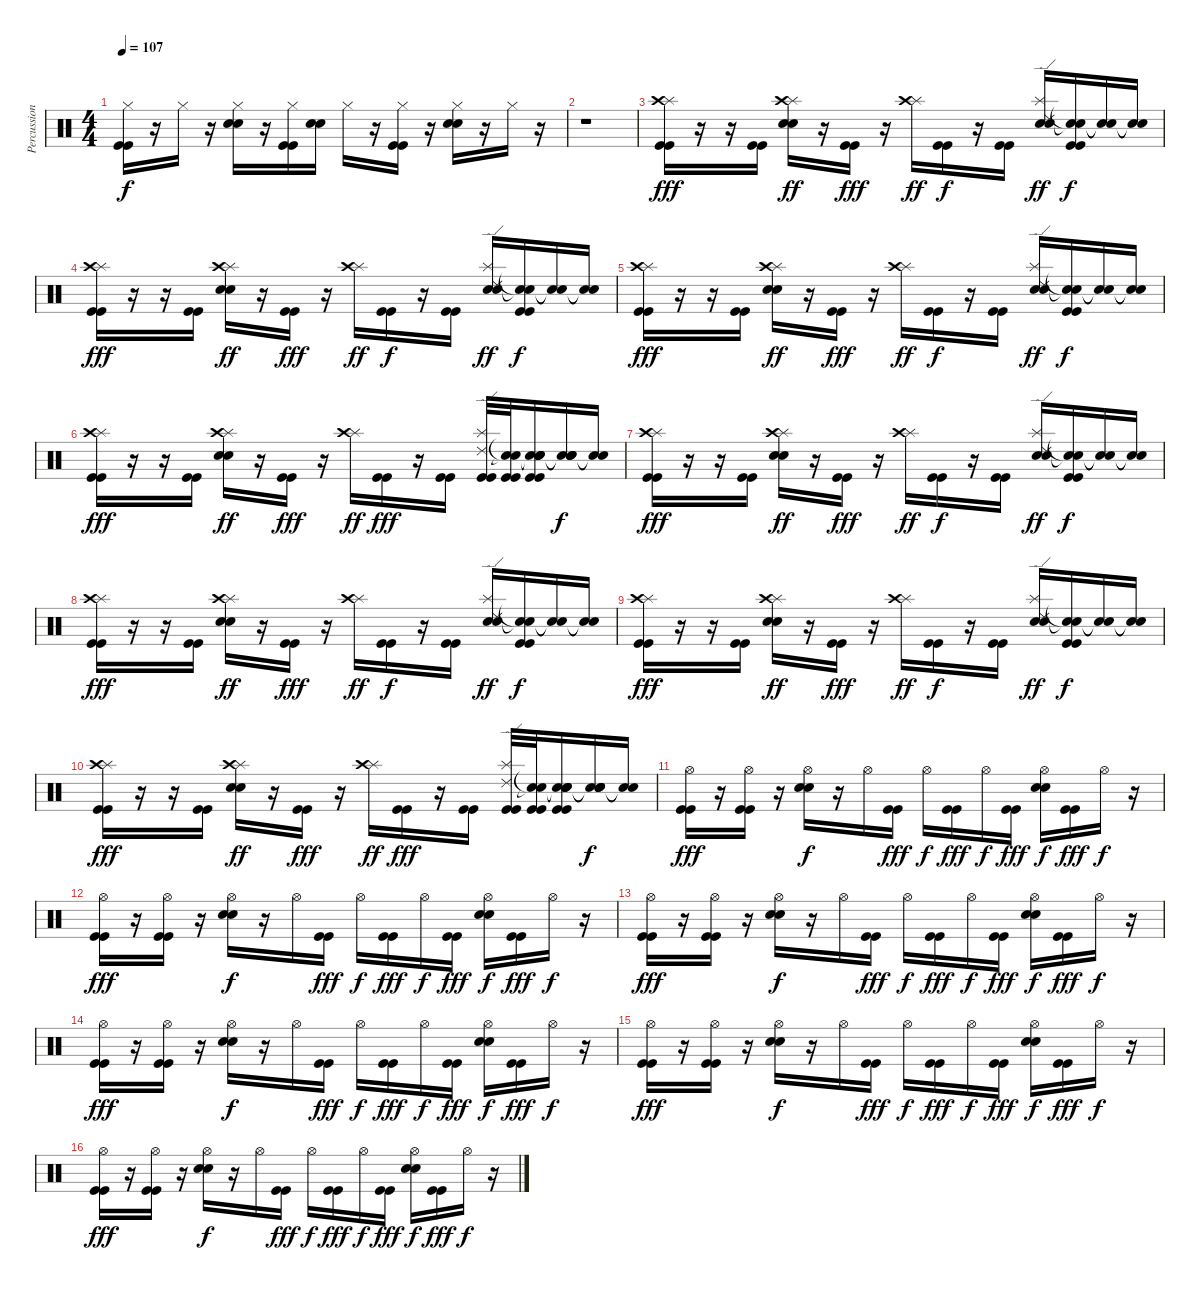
\track ("Percussions" "Percussion") {instrument percussion}
\staff {score}
\articulation defaults
\ts (4 4)
\tempo 107
\clef neutral
\ks c
("Hi-Hat (closed)" "Kick (hit)" "Kick (hit)").16{dy f} r.16 "Hi-Hat (closed)".16 r.16 ("Hi-Hat (closed)" "Electric Snare (hit)" "Electric Snare (hit)").16 r.16 ("Hi-Hat (closed)" "Kick (hit)" "Kick (hit)").16 ("Electric Snare (hit)" "Electric Snare (hit)").16 "Hi-Hat (closed)".16 r.16 ("Hi-Hat (closed)" "Kick (hit)" "Kick (hit)").16 r.16 ("Hi-Hat (closed)" "Electric Snare (hit)" "Electric Snare (hit)").16 r.16 "Hi-Hat (closed)".16 r.16 |
r.1 |
("Splash (hit)" "Crash high (hit)" "Kick (hit)" "Kick (hit)").16{dy fff} r.16 r.16 ("Kick (hit)" "Kick (hit)").16 ("Splash (hit)" "Crash high (hit)" "Electric Snare (hit)" "Electric Snare (hit)").16{dy ff} r.16 ("Kick (hit)" "Kick (hit)").16{dy fff} r.16 ("Splash (hit)" "Crash high (hit)").16{dy ff} ("Kick (hit)" "Kick (hit)").16{dy f} r.16 ("Kick (hit)" "Kick (hit)").16 ("Splash (hit)" "Ride (edge) 2" "Electric Snare (hit)" "Electric Snare (hit)").16{dy ff} ("Snare (hit)"{t} "Snare (hit)"{t} "Kick (hit)" "Kick (hit)").16{dy f} ("Snare (hit)"{t} "Snare (hit)"{t}).16 ("Snare (hit)"{t} "Snare (hit)"{t}).16 |
("Splash (hit)" "Crash high (hit)" "Kick (hit)" "Kick (hit)").16{dy fff} r.16 r.16 ("Kick (hit)" "Kick (hit)").16 ("Splash (hit)" "Crash high (hit)" "Electric Snare (hit)" "Electric Snare (hit)").16{dy ff} r.16 ("Kick (hit)" "Kick (hit)").16{dy fff} r.16 ("Splash (hit)" "Crash high (hit)").16{dy ff} ("Kick (hit)" "Kick (hit)").16{dy f} r.16 ("Kick (hit)" "Kick (hit)").16 ("Splash (hit)" "Ride (edge) 2" "Electric Snare (hit)" "Electric Snare (hit)").16{dy ff} ("Snare (hit)"{t} "Snare (hit)"{t} "Kick (hit)" "Kick (hit)").16{dy f} ("Snare (hit)"{t} "Snare (hit)"{t}).16 ("Snare (hit)"{t} "Snare (hit)"{t}).16 |
("Splash (hit)" "Crash high (hit)" "Kick (hit)" "Kick (hit)").16{dy fff} r.16 r.16 ("Kick (hit)" "Kick (hit)").16 ("Splash (hit)" "Crash high (hit)" "Electric Snare (hit)" "Electric Snare (hit)").16{dy ff} r.16 ("Kick (hit)" "Kick (hit)").16{dy fff} r.16 ("Splash (hit)" "Crash high (hit)").16{dy ff} ("Kick (hit)" "Kick (hit)").16{dy f} r.16 ("Kick (hit)" "Kick (hit)").16 ("Splash (hit)" "Ride (edge) 2" "Electric Snare (hit)" "Electric Snare (hit)").16{dy ff} ("Snare (hit)"{t} "Snare (hit)"{t} "Kick (hit)" "Kick (hit)").16{dy f} ("Snare (hit)"{t} "Snare (hit)"{t}).16 ("Snare (hit)"{t} "Snare (hit)"{t}).16 |
("Splash (hit)" "Crash high (hit)" "Kick (hit)" "Kick (hit)").16{dy fff} r.16 r.16 ("Kick (hit)" "Kick (hit)").16 ("Splash (hit)" "Crash high (hit)" "Electric Snare (hit)" "Electric Snare (hit)").16{dy ff} r.16 ("Kick (hit)" "Kick (hit)").16{dy fff} r.16 ("Splash (hit)" "Crash high (hit)").16{dy ff} ("Kick (hit)" "Kick (hit)").16{dy fff} r.16 ("Kick (hit)" "Kick (hit)").16 ("Splash (hit)" "Ride (edge) 2" "Kick (hit)" "Kick (hit)").32 ("Snare (hit)"{t} "Snare (hit)"{t} "Kick (hit)" "Kick (hit)").32 ("Snare (hit)"{t} "Snare (hit)"{t} "Electric Snare (hit)" "Electric Snare (hit)" "Kick (hit)" "Kick (hit)").16 ("Snare (hit)"{t} "Snare (hit)"{t} "Electric Snare (hit)" "Electric Snare (hit)").16{dy f} ("Snare (hit)"{t} "Snare (hit)"{t}).16 |
("Splash (hit)" "Crash high (hit)" "Kick (hit)" "Kick (hit)").16{dy fff} r.16 r.16 ("Kick (hit)" "Kick (hit)").16 ("Splash (hit)" "Crash high (hit)" "Electric Snare (hit)" "Electric Snare (hit)").16{dy ff} r.16 ("Kick (hit)" "Kick (hit)").16{dy fff} r.16 ("Splash (hit)" "Crash high (hit)").16{dy ff} ("Kick (hit)" "Kick (hit)").16{dy f} r.16 ("Kick (hit)" "Kick (hit)").16 ("Splash (hit)" "Ride (edge) 2" "Electric Snare (hit)" "Electric Snare (hit)").16{dy ff} ("Snare (hit)"{t} "Snare (hit)"{t} "Kick (hit)" "Kick (hit)").16{dy f} ("Snare (hit)"{t} "Snare (hit)"{t}).16 ("Snare (hit)"{t} "Snare (hit)"{t}).16 |
("Splash (hit)" "Crash high (hit)" "Kick (hit)" "Kick (hit)").16{dy fff} r.16 r.16 ("Kick (hit)" "Kick (hit)").16 ("Splash (hit)" "Crash high (hit)" "Electric Snare (hit)" "Electric Snare (hit)").16{dy ff} r.16 ("Kick (hit)" "Kick (hit)").16{dy fff} r.16 ("Splash (hit)" "Crash high (hit)").16{dy ff} ("Kick (hit)" "Kick (hit)").16{dy f} r.16 ("Kick (hit)" "Kick (hit)").16 ("Splash (hit)" "Ride (edge) 2" "Electric Snare (hit)" "Electric Snare (hit)").16{dy ff} ("Snare (hit)"{t} "Snare (hit)"{t} "Kick (hit)" "Kick (hit)").16{dy f} ("Snare (hit)"{t} "Snare (hit)"{t}).16 ("Snare (hit)"{t} "Snare (hit)"{t}).16 |
("Splash (hit)" "Crash high (hit)" "Kick (hit)" "Kick (hit)").16{dy fff} r.16 r.16 ("Kick (hit)" "Kick (hit)").16 ("Splash (hit)" "Crash high (hit)" "Electric Snare (hit)" "Electric Snare (hit)").16{dy ff} r.16 ("Kick (hit)" "Kick (hit)").16{dy fff} r.16 ("Splash (hit)" "Crash high (hit)").16{dy ff} ("Kick (hit)" "Kick (hit)").16{dy f} r.16 ("Kick (hit)" "Kick (hit)").16 ("Splash (hit)" "Ride (edge) 2" "Electric Snare (hit)" "Electric Snare (hit)").16{dy ff} ("Snare (hit)"{t} "Snare (hit)"{t} "Kick (hit)" "Kick (hit)").16{dy f} ("Snare (hit)"{t} "Snare (hit)"{t}).16 ("Snare (hit)"{t} "Snare (hit)"{t}).16 |
("Splash (hit)" "Crash high (hit)" "Kick (hit)" "Kick (hit)").16{dy fff} r.16 r.16 ("Kick (hit)" "Kick (hit)").16 ("Splash (hit)" "Crash high (hit)" "Electric Snare (hit)" "Electric Snare (hit)").16{dy ff} r.16 ("Kick (hit)" "Kick (hit)").16{dy fff} r.16 ("Splash (hit)" "Crash high (hit)").16{dy ff} ("Kick (hit)" "Kick (hit)").16{dy fff} r.16 ("Kick (hit)" "Kick (hit)").16 ("Splash (hit)" "Ride (edge) 2" "Kick (hit)" "Kick (hit)").32 ("Snare (hit)"{t} "Snare (hit)"{t} "Kick (hit)" "Kick (hit)").32 ("Snare (hit)"{t} "Snare (hit)"{t} "Electric Snare (hit)" "Electric Snare (hit)" "Kick (hit)" "Kick (hit)").16 ("Snare (hit)"{t} "Snare (hit)"{t} "Electric Snare (hit)" "Electric Snare (hit)").16{dy f} ("Snare (hit)"{t} "Snare (hit)"{t}).16 |
("Hi-Hat (open)" "Kick (hit)" "Kick (hit)").16{dy fff} r.16 ("Hi-Hat (open)" "Kick (hit)" "Kick (hit)").16 r.16 ("Hi-Hat (open)" "Electric Snare (hit)" "Electric Snare (hit)").16{dy f} r.16 "Hi-Hat (open)".16 ("Kick (hit)" "Kick (hit)").16{dy fff} "Hi-Hat (open)".16{dy f} ("Kick (hit)" "Kick (hit)").16{dy fff} "Hi-Hat (open)".16{dy f} ("Kick (hit)" "Kick (hit)").16{dy fff} ("Hi-Hat (open)" "Electric Snare (hit)" "Electric Snare (hit)").16{dy f} ("Kick (hit)" "Kick (hit)").16{dy fff} "Hi-Hat (open)".16{dy f} r.16 |
("Hi-Hat (open)" "Kick (hit)" "Kick (hit)").16{dy fff} r.16 ("Hi-Hat (open)" "Kick (hit)" "Kick (hit)").16 r.16 ("Hi-Hat (open)" "Electric Snare (hit)" "Electric Snare (hit)").16{dy f} r.16 "Hi-Hat (open)".16 ("Kick (hit)" "Kick (hit)").16{dy fff} "Hi-Hat (open)".16{dy f} ("Kick (hit)" "Kick (hit)").16{dy fff} "Hi-Hat (open)".16{dy f} ("Kick (hit)" "Kick (hit)").16{dy fff} ("Hi-Hat (open)" "Electric Snare (hit)" "Electric Snare (hit)").16{dy f} ("Kick (hit)" "Kick (hit)").16{dy fff} "Hi-Hat (open)".16{dy f} r.16 |
("Hi-Hat (open)" "Kick (hit)" "Kick (hit)").16{dy fff} r.16 ("Hi-Hat (open)" "Kick (hit)" "Kick (hit)").16 r.16 ("Hi-Hat (open)" "Electric Snare (hit)" "Electric Snare (hit)").16{dy f} r.16 "Hi-Hat (open)".16 ("Kick (hit)" "Kick (hit)").16{dy fff} "Hi-Hat (open)".16{dy f} ("Kick (hit)" "Kick (hit)").16{dy fff} "Hi-Hat (open)".16{dy f} ("Kick (hit)" "Kick (hit)").16{dy fff} ("Hi-Hat (open)" "Electric Snare (hit)" "Electric Snare (hit)").16{dy f} ("Kick (hit)" "Kick (hit)").16{dy fff} "Hi-Hat (open)".16{dy f} r.16 |
("Hi-Hat (open)" "Kick (hit)" "Kick (hit)").16{dy fff} r.16 ("Hi-Hat (open)" "Kick (hit)" "Kick (hit)").16 r.16 ("Hi-Hat (open)" "Electric Snare (hit)" "Electric Snare (hit)").16{dy f} r.16 "Hi-Hat (open)".16 ("Kick (hit)" "Kick (hit)").16{dy fff} "Hi-Hat (open)".16{dy f} ("Kick (hit)" "Kick (hit)").16{dy fff} "Hi-Hat (open)".16{dy f} ("Kick (hit)" "Kick (hit)").16{dy fff} ("Hi-Hat (open)" "Electric Snare (hit)" "Electric Snare (hit)").16{dy f} ("Kick (hit)" "Kick (hit)").16{dy fff} "Hi-Hat (open)".16{dy f} r.16 |
("Hi-Hat (open)" "Kick (hit)" "Kick (hit)").16{dy fff} r.16 ("Hi-Hat (open)" "Kick (hit)" "Kick (hit)").16 r.16 ("Hi-Hat (open)" "Electric Snare (hit)" "Electric Snare (hit)").16{dy f} r.16 "Hi-Hat (open)".16 ("Kick (hit)" "Kick (hit)").16{dy fff} "Hi-Hat (open)".16{dy f} ("Kick (hit)" "Kick (hit)").16{dy fff} "Hi-Hat (open)".16{dy f} ("Kick (hit)" "Kick (hit)").16{dy fff} ("Hi-Hat (open)" "Electric Snare (hit)" "Electric Snare (hit)").16{dy f} ("Kick (hit)" "Kick (hit)").16{dy fff} "Hi-Hat (open)".16{dy f} r.16 |
("Hi-Hat (open)" "Kick (hit)" "Kick (hit)").16{dy fff} r.16 ("Hi-Hat (open)" "Kick (hit)" "Kick (hit)").16 r.16 ("Hi-Hat (open)" "Electric Snare (hit)" "Electric Snare (hit)").16{dy f} r.16 "Hi-Hat (open)".16 ("Kick (hit)" "Kick (hit)").16{dy fff} "Hi-Hat (open)".16{dy f} ("Kick (hit)" "Kick (hit)").16{dy fff} "Hi-Hat (open)".16{dy f} ("Kick (hit)" "Kick (hit)").16{dy fff} ("Hi-Hat (open)" "Electric Snare (hit)" "Electric Snare (hit)").16{dy f} ("Kick (hit)" "Kick (hit)").16{dy fff} "Hi-Hat (open)".16{dy f} r.16
